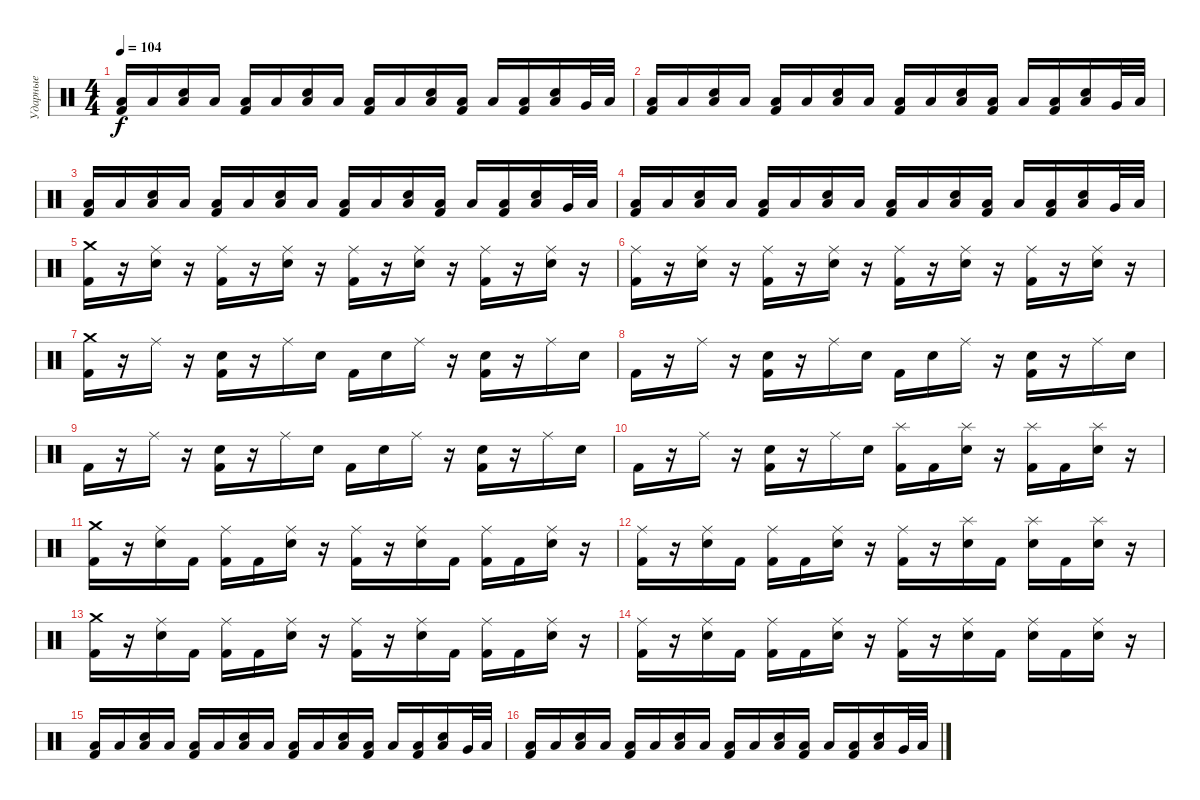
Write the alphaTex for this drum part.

\track ("Ударные" "Ударные") {instrument percussion}
\staff {score}
\articulation defaults
\ts (4 4)
\tempo 104
\clef neutral
\ks c
("Low Floor Tom (hit)" "Kick (hit) 2").16{dy f} "Low Floor Tom (hit)".16 ("Low Floor Tom (hit)" "Electric Snare (hit)").16 "Low Floor Tom (hit)".16 ("Low Floor Tom (hit)" "Kick (hit) 2").16 "Low Floor Tom (hit)".16 ("Low Floor Tom (hit)" "Electric Snare (hit)").16 "Low Floor Tom (hit)".16 ("Low Floor Tom (hit)" "Kick (hit) 2").16 "Low Floor Tom (hit)".16 ("Low Floor Tom (hit)" "Electric Snare (hit)").16 ("Low Floor Tom (hit)" "Kick (hit) 2").16 "Low Floor Tom (hit)".16 ("Low Floor Tom (hit)" "Kick (hit) 2").16 ("Low Floor Tom (hit)" "Electric Snare (hit)").16 "Very Low Tom (hit)".32 "Low Tom (hit)".32 |
("Low Floor Tom (hit)" "Kick (hit) 2").16 "Low Floor Tom (hit)".16 ("Low Floor Tom (hit)" "Electric Snare (hit)").16 "Low Floor Tom (hit)".16 ("Low Floor Tom (hit)" "Kick (hit) 2").16 "Low Floor Tom (hit)".16 ("Low Floor Tom (hit)" "Electric Snare (hit)").16 "Low Floor Tom (hit)".16 ("Low Floor Tom (hit)" "Kick (hit) 2").16 "Low Floor Tom (hit)".16 ("Low Floor Tom (hit)" "Electric Snare (hit)").16 ("Low Floor Tom (hit)" "Kick (hit) 2").16 "Low Floor Tom (hit)".16 ("Low Floor Tom (hit)" "Kick (hit) 2").16 ("Low Floor Tom (hit)" "Electric Snare (hit)").16 "Very Low Tom (hit)".32 "Low Tom (hit)".32 |
("Low Floor Tom (hit)" "Kick (hit) 2").16 "Low Floor Tom (hit)".16 ("Low Floor Tom (hit)" "Electric Snare (hit)").16 "Low Floor Tom (hit)".16 ("Low Floor Tom (hit)" "Kick (hit) 2").16 "Low Floor Tom (hit)".16 ("Low Floor Tom (hit)" "Electric Snare (hit)").16 "Low Floor Tom (hit)".16 ("Low Floor Tom (hit)" "Kick (hit) 2").16 "Low Floor Tom (hit)".16 ("Low Floor Tom (hit)" "Electric Snare (hit)").16 ("Low Floor Tom (hit)" "Kick (hit) 2").16 "Low Floor Tom (hit)".16 ("Low Floor Tom (hit)" "Kick (hit) 2").16 ("Low Floor Tom (hit)" "Electric Snare (hit)").16 "Very Low Tom (hit)".32 "Low Tom (hit)".32 |
("Low Floor Tom (hit)" "Kick (hit) 2").16 "Low Floor Tom (hit)".16 ("Low Floor Tom (hit)" "Electric Snare (hit)").16 "Low Floor Tom (hit)".16 ("Low Floor Tom (hit)" "Kick (hit) 2").16 "Low Floor Tom (hit)".16 ("Low Floor Tom (hit)" "Electric Snare (hit)").16 "Low Floor Tom (hit)".16 ("Low Floor Tom (hit)" "Kick (hit) 2").16 "Low Floor Tom (hit)".16 ("Low Floor Tom (hit)" "Electric Snare (hit)").16 ("Low Floor Tom (hit)" "Kick (hit) 2").16 "Low Floor Tom (hit)".16 ("Low Floor Tom (hit)" "Kick (hit) 2").16 ("Low Floor Tom (hit)" "Electric Snare (hit)").16 "Very Low Tom (hit)".32 "Low Tom (hit)".32 |
("Crash medium (hit)" "Kick (hit) 2").16 r.16 ("Ride (middle)" "Electric Snare (hit)").16 r.16 ("Ride (middle)" "Kick (hit) 2").16 r.16 ("Ride (middle)" "Electric Snare (hit)").16 r.16 ("Ride (middle)" "Kick (hit) 2").16 r.16 ("Ride (middle)" "Electric Snare (hit)").16 r.16 ("Ride (middle)" "Kick (hit) 2").16 r.16 ("Ride (middle)" "Electric Snare (hit)").16 r.16 |
("Ride (middle)" "Kick (hit) 2").16 r.16 ("Ride (middle)" "Electric Snare (hit)").16 r.16 ("Ride (middle)" "Kick (hit) 2").16 r.16 ("Ride (middle)" "Electric Snare (hit)").16 r.16 ("Ride (middle)" "Kick (hit) 2").16 r.16 ("Ride (middle)" "Electric Snare (hit)").16 r.16 ("Ride (middle)" "Kick (hit) 2").16 r.16 ("Ride (middle)" "Electric Snare (hit)").16 r.16 |
("Crash medium (hit)" "Kick (hit) 2").16 r.16 "Ride (middle)".16 r.16 ("Electric Snare (hit)" "Kick (hit) 2").16 r.16 "Ride (middle)".16 "Electric Snare (hit)".16 "Kick (hit) 2".16 "Electric Snare (hit)".16 "Ride (middle)".16 r.16 ("Electric Snare (hit)" "Kick (hit) 2").16 r.16 "Ride (middle)".16 "Electric Snare (hit)".16 |
"Kick (hit) 2".16 r.16 "Ride (middle)".16 r.16 ("Electric Snare (hit)" "Kick (hit) 2").16 r.16 "Ride (middle)".16 "Electric Snare (hit)".16 "Kick (hit) 2".16 "Electric Snare (hit)".16 "Ride (middle)".16 r.16 ("Electric Snare (hit)" "Kick (hit) 2").16 r.16 "Ride (middle)".16 "Electric Snare (hit)".16 |
"Kick (hit) 2".16 r.16 "Ride (middle)".16 r.16 ("Electric Snare (hit)" "Kick (hit) 2").16 r.16 "Ride (middle)".16 "Electric Snare (hit)".16 "Kick (hit) 2".16 "Electric Snare (hit)".16 "Ride (middle)".16 r.16 ("Electric Snare (hit)" "Kick (hit) 2").16 r.16 "Ride (middle)".16 "Electric Snare (hit)".16 |
"Kick (hit) 2".16 r.16 "Ride (middle)".16 r.16 ("Electric Snare (hit)" "Kick (hit) 2").16 r.16 "Ride (middle)".16 "Electric Snare (hit)".16 ("Splash (hit)" "Kick (hit) 2").16 "Kick (hit) 2".16 ("Splash (hit)" "Electric Snare (hit)").16 r.16 ("Splash (hit)" "Kick (hit) 2").16 "Kick (hit) 2".16 ("Splash (hit)" "Electric Snare (hit)").16 r.16 |
("Crash medium (hit)" "Kick (hit) 2").16 r.16 ("Ride (middle)" "Electric Snare (hit)").16 "Kick (hit) 2".16 ("Ride (middle)" "Kick (hit) 2").16 "Kick (hit) 2".16 ("Ride (middle)" "Electric Snare (hit)").16 r.16 ("Ride (middle)" "Kick (hit) 2").16 r.16 ("Ride (middle)" "Electric Snare (hit)").16 "Kick (hit) 2".16 ("Ride (middle)" "Kick (hit) 2").16 "Kick (hit) 2".16 ("Ride (middle)" "Electric Snare (hit)").16 r.16 |
("Ride (middle)" "Kick (hit) 2").16 r.16 ("Ride (middle)" "Electric Snare (hit)").16 "Kick (hit) 2".16 ("Ride (middle)" "Kick (hit) 2").16 "Kick (hit) 2".16 ("Ride (middle)" "Electric Snare (hit)").16 r.16 ("Ride (middle)" "Kick (hit) 2").16 r.16 ("Splash (hit)" "Electric Snare (hit)").16 "Kick (hit) 2".16 ("Splash (hit)" "Electric Snare (hit)").16 "Kick (hit) 2".16 ("Splash (hit)" "Electric Snare (hit)").16 r.16 |
("Crash medium (hit)" "Kick (hit) 2").16 r.16 ("Ride (middle)" "Electric Snare (hit)").16 "Kick (hit) 2".16 ("Ride (middle)" "Kick (hit) 2").16 "Kick (hit) 2".16 ("Ride (middle)" "Electric Snare (hit)").16 r.16 ("Ride (middle)" "Kick (hit) 2").16 r.16 ("Ride (middle)" "Electric Snare (hit)").16 "Kick (hit) 2".16 ("Ride (middle)" "Kick (hit) 2").16 "Kick (hit) 2".16 ("Ride (middle)" "Electric Snare (hit)").16 r.16 |
("Ride (middle)" "Kick (hit) 2").16 r.16 ("Ride (middle)" "Electric Snare (hit)").16 "Kick (hit) 2".16 ("Ride (middle)" "Kick (hit) 2").16 "Kick (hit) 2".16 ("Ride (middle)" "Electric Snare (hit)").16 r.16 ("Ride (middle)" "Kick (hit) 2").16 r.16 ("Ride (middle)" "Electric Snare (hit)").16 "Kick (hit) 2".16 ("Ride (middle)" "Electric Snare (hit)").16 "Kick (hit) 2".16 ("Ride (middle)" "Electric Snare (hit)").16 r.16 |
("Low Floor Tom (hit)" "Kick (hit) 2").16 "Low Floor Tom (hit)".16 ("Low Floor Tom (hit)" "Electric Snare (hit)").16 "Low Floor Tom (hit)".16 ("Low Floor Tom (hit)" "Kick (hit) 2").16 "Low Floor Tom (hit)".16 ("Low Floor Tom (hit)" "Electric Snare (hit)").16 "Low Floor Tom (hit)".16 ("Low Floor Tom (hit)" "Kick (hit) 2").16 "Low Floor Tom (hit)".16 ("Low Floor Tom (hit)" "Electric Snare (hit)").16 ("Low Floor Tom (hit)" "Kick (hit) 2").16 "Low Floor Tom (hit)".16 ("Low Floor Tom (hit)" "Kick (hit) 2").16 ("Low Floor Tom (hit)" "Electric Snare (hit)").16 "Very Low Tom (hit)".32 "Low Tom (hit)".32 |
("Low Floor Tom (hit)" "Kick (hit) 2").16 "Low Floor Tom (hit)".16 ("Low Floor Tom (hit)" "Electric Snare (hit)").16 "Low Floor Tom (hit)".16 ("Low Floor Tom (hit)" "Kick (hit) 2").16 "Low Floor Tom (hit)".16 ("Low Floor Tom (hit)" "Electric Snare (hit)").16 "Low Floor Tom (hit)".16 ("Low Floor Tom (hit)" "Kick (hit) 2").16 "Low Floor Tom (hit)".16 ("Low Floor Tom (hit)" "Electric Snare (hit)").16 ("Low Floor Tom (hit)" "Kick (hit) 2").16 "Low Floor Tom (hit)".16 ("Low Floor Tom (hit)" "Kick (hit) 2").16 ("Low Floor Tom (hit)" "Electric Snare (hit)").16 "Very Low Tom (hit)".32 "Low Tom (hit)".32
